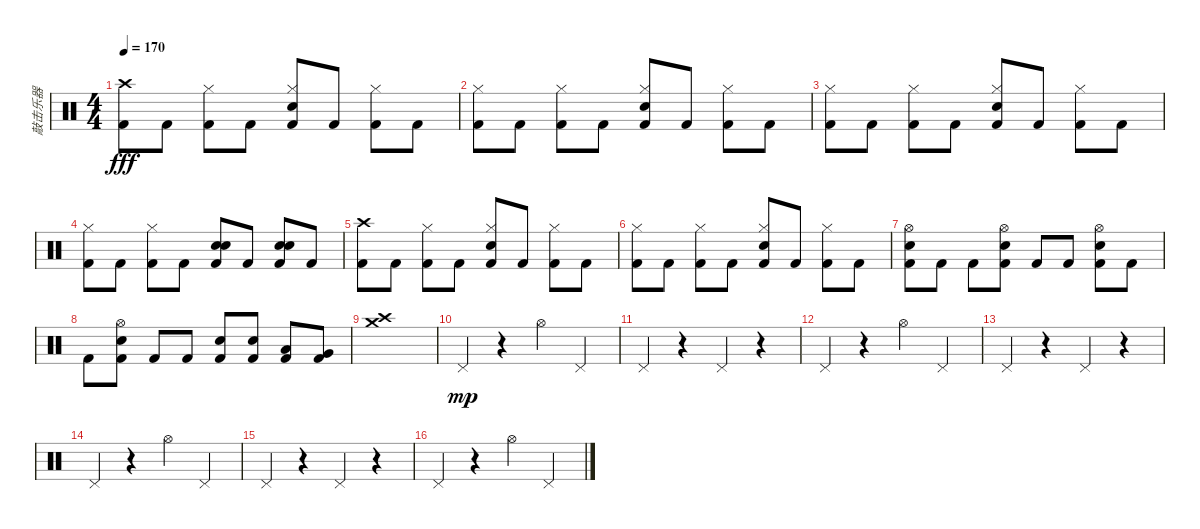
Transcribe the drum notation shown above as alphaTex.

\track ("敲击乐器" "敲击乐器") {instrument percussion}
\staff {score}
\articulation defaults
\ts (4 4)
\tempo 170
\clef neutral
\ks c
("Crash high (hit)" "Kick (hit) 2").8{dy fff} "Kick (hit) 2".8 ("Hi-Hat (closed)" "Kick (hit) 2").8 "Kick (hit) 2".8 ("Hi-Hat (closed)" "Electric Snare (hit)" "Kick (hit) 2").8 "Kick (hit) 2".8 ("Hi-Hat (closed)" "Kick (hit) 2").8 "Kick (hit) 2".8 |
("Hi-Hat (closed)" "Kick (hit) 2").8 "Kick (hit) 2".8 ("Hi-Hat (closed)" "Kick (hit) 2").8 "Kick (hit) 2".8 ("Hi-Hat (closed)" "Electric Snare (hit)" "Kick (hit) 2").8 "Kick (hit) 2".8 ("Hi-Hat (closed)" "Kick (hit) 2").8 "Kick (hit) 2".8 |
("Hi-Hat (closed)" "Kick (hit) 2").8 "Kick (hit) 2".8 ("Hi-Hat (closed)" "Kick (hit) 2").8 "Kick (hit) 2".8 ("Hi-Hat (closed)" "Electric Snare (hit)" "Kick (hit) 2").8 "Kick (hit) 2".8 ("Hi-Hat (closed)" "Kick (hit) 2").8 "Kick (hit) 2".8 |
("Hi-Hat (closed)" "Kick (hit) 2").8 "Kick (hit) 2".8 ("Hi-Hat (closed)" "Kick (hit) 2").8 "Kick (hit) 2".8 ("Electric Snare (hit)" "Electric Snare (hit)" "Kick (hit) 2").8 "Kick (hit) 2".8 ("Electric Snare (hit)" "Electric Snare (hit)" "Kick (hit) 2").8 "Kick (hit) 2".8 |
("Crash high (hit)" "Kick (hit) 2").8 "Kick (hit) 2".8 ("Hi-Hat (closed)" "Kick (hit) 2").8 "Kick (hit) 2".8 ("Hi-Hat (closed)" "Electric Snare (hit)" "Kick (hit) 2").8 "Kick (hit) 2".8 ("Hi-Hat (closed)" "Kick (hit) 2").8 "Kick (hit) 2".8 |
("Hi-Hat (closed)" "Kick (hit) 2").8 "Kick (hit) 2".8 ("Hi-Hat (closed)" "Kick (hit) 2").8 "Kick (hit) 2".8 ("Hi-Hat (closed)" "Electric Snare (hit)" "Kick (hit) 2").8 "Kick (hit) 2".8 ("Hi-Hat (closed)" "Kick (hit) 2").8 "Kick (hit) 2".8 |
("Hi-Hat (open)" "Electric Snare (hit)" "Kick (hit) 2").8 "Kick (hit) 2".8 "Kick (hit) 2".8 ("Hi-Hat (open)" "Electric Snare (hit)" "Kick (hit) 2").8 "Kick (hit) 2".8 "Kick (hit) 2".8 ("Hi-Hat (open)" "Electric Snare (hit)" "Kick (hit) 2").8 "Kick (hit) 2".8 |
"Kick (hit) 2".8 ("Hi-Hat (open)" "Electric Snare (hit)" "Kick (hit) 2").8 "Kick (hit) 2".8 "Kick (hit) 2".8 ("Electric Snare (hit)" "Kick (hit) 2").8 ("Electric Snare (hit)" "Kick (hit) 2").8 ("Low Tom (hit)" "Kick (hit) 2").8 ("Very Low Tom (hit)" "Kick (hit) 2").8 |
("Crash high (hit)" "Crash medium (hit)").1 |
"Pedal Hi-Hat (hit)".4{dy mp} r.4 "Hi-Hat (open)".4 "Pedal Hi-Hat (hit)".4 |
"Pedal Hi-Hat (hit)".4 r.4 "Pedal Hi-Hat (hit)".4 r.4 |
"Pedal Hi-Hat (hit)".4 r.4 "Hi-Hat (open)".4 "Pedal Hi-Hat (hit)".4 |
"Pedal Hi-Hat (hit)".4 r.4 "Pedal Hi-Hat (hit)".4 r.4 |
"Pedal Hi-Hat (hit)".4 r.4 "Hi-Hat (open)".4 "Pedal Hi-Hat (hit)".4 |
"Pedal Hi-Hat (hit)".4 r.4 "Pedal Hi-Hat (hit)".4 r.4 |
"Pedal Hi-Hat (hit)".4 r.4 "Hi-Hat (open)".4 "Pedal Hi-Hat (hit)".4
